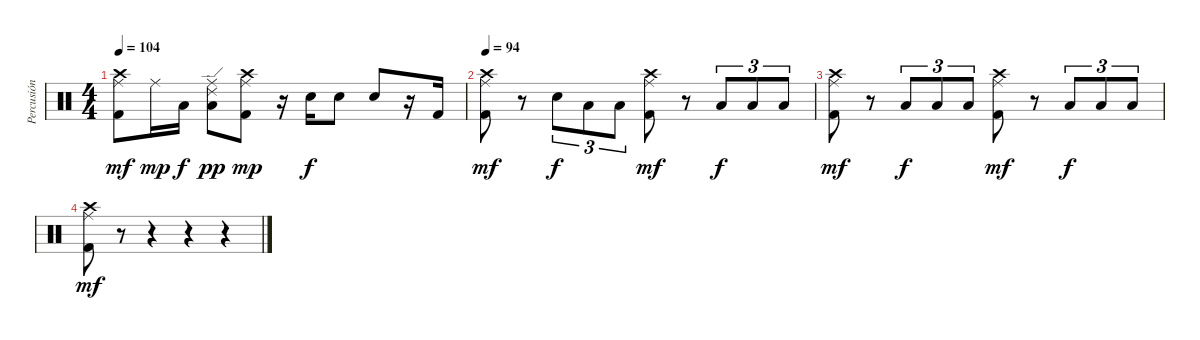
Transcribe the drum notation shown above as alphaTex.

\track ("Percusión" "Percusión") {instrument percussion}
\staff {score}
\articulation defaults
\ts (4 4)
\tempo 104
\clef neutral
\ks c
("Crash high (hit)" "Ride (middle)" "Kick (hit) 2").8{dy mf} "Ride (middle)".16{dy mp} "Low Floor Tom (hit)".16{dy f} ("Ride (edge) 2" "Ride (middle)" "Low Floor Tom (hit)").8{dy pp} ("Crash high (hit)" "Ride (middle)" "Kick (hit) 2").8{dy mp} r.16 "Snare (hit) 2".16{dy f} "Snare (hit) 2".8 "Snare (hit) 2".8 r.16 "Kick (hit) 2".16 |
\tempo 94
("Crash high (hit)" "Ride (middle)" "Kick (hit) 2").8{dy mf} r.8 "Snare (hit) 2".8{tu (3 2) dy f} "Low Tom (hit)".8{tu (3 2)} "Low Tom (hit)".8{tu (3 2)} ("Crash high (hit)" "Ride (middle)" "Kick (hit) 2").8{dy mf} r.8 "Low Tom (hit)".8{tu (3 2) dy f} "Low Tom (hit)".8{tu (3 2)} "Low Tom (hit)".8{tu (3 2)} |
("Crash high (hit)" "Ride (middle)" "Kick (hit) 2").8{dy mf} r.8 "Low Tom (hit)".8{tu (3 2) dy f} "Low Floor Tom (hit)".8{tu (3 2)} "Low Tom (hit)".8{tu (3 2)} ("Crash high (hit)" "Ride (middle)" "Kick (hit) 2").8{dy mf} r.8 "Low Tom (hit)".8{tu (3 2) dy f} "Low Floor Tom (hit)".8{tu (3 2)} "Low Floor Tom (hit)".8{tu (3 2)} |
("Crash high (hit)" "Ride (middle)" "Kick (hit) 2").8{dy mf} r.8 r.4 r.4 r.4
